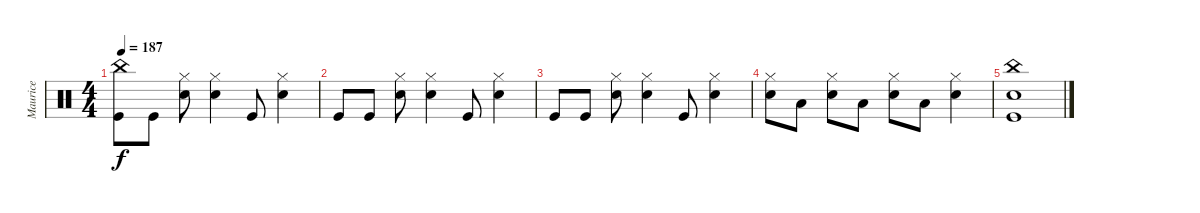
\track ("Maurice" "Maurice") {instrument percussion}
\staff {score}
\articulation defaults
\ts (4 4)
\tempo 187
\clef neutral
\ks c
("China (hit)" "Kick (hit)").8{dy f} "Kick (hit)".8 ("Hi-Hat (closed)" "Snare (hit) 2").8 ("Hi-Hat (closed)" "Snare (hit) 2").4 "Kick (hit)".8 ("Hi-Hat (closed)" "Snare (hit) 2").4 |
"Kick (hit)".8 "Kick (hit)".8 ("Hi-Hat (closed)" "Snare (hit) 2").8 ("Hi-Hat (closed)" "Snare (hit) 2").4 "Kick (hit)".8 ("Hi-Hat (closed)" "Snare (hit) 2").4 |
"Kick (hit)".8 "Kick (hit)".8 ("Hi-Hat (closed)" "Snare (hit) 2").8 ("Hi-Hat (closed)" "Snare (hit) 2").4 "Kick (hit)".8 ("Hi-Hat (closed)" "Snare (hit) 2").4 |
("Hi-Hat (closed)" "Snare (hit) 2").8 "Low Tom (hit)".8 ("Hi-Hat (closed)" "Snare (hit) 2").8 "Low Tom (hit)".8 ("Hi-Hat (closed)" "Snare (hit) 2").8 "Low Tom (hit)".8 ("Hi-Hat (closed)" "Snare (hit) 2").4 |
("China (hit)" "Snare (hit) 2" "Kick (hit)").1
